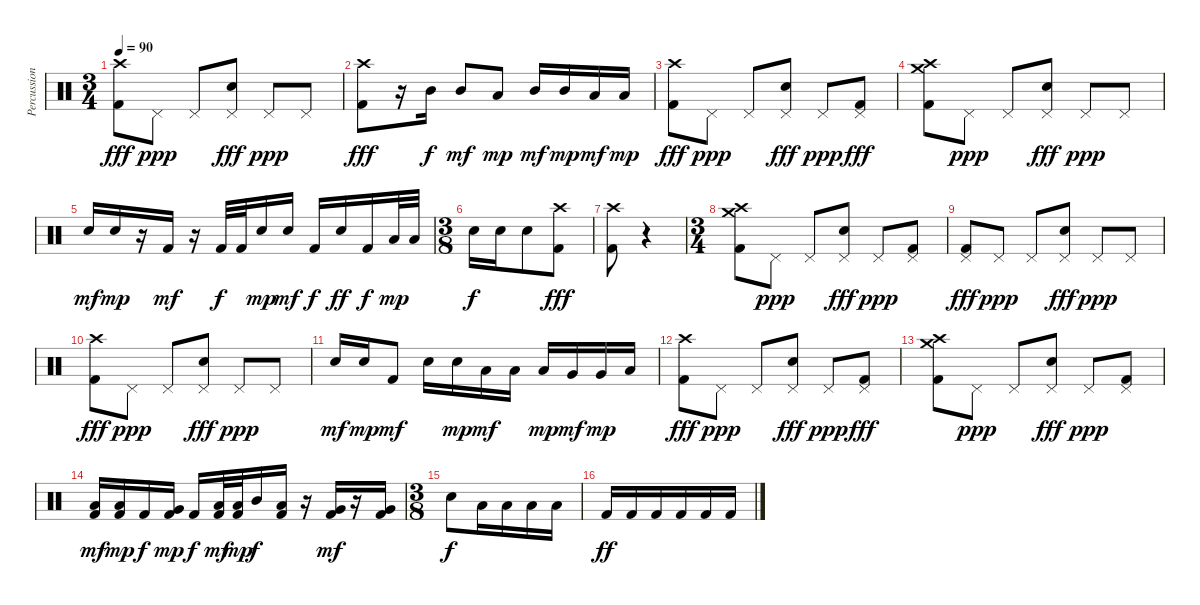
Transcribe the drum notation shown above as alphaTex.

\track ("Percussion" "Percussion") {instrument percussion}
\staff {score}
\articulation defaults
\ts (3 4)
\tempo 90
\clef neutral
\ks c
("Crash high (hit)" "Kick (hit) 2").8{dy fff} "Pedal Hi-Hat (hit)".8{dy ppp} "Pedal Hi-Hat (hit)".8 ("Pedal Hi-Hat (hit)" "Snare (hit) 2").8{dy fff} "Pedal Hi-Hat (hit)".8{dy ppp} "Pedal Hi-Hat (hit)".8 |
("Crash high (hit)" "Kick (hit) 2").8{dy fff} r.16 "Mid Tom (hit)".16{dy f} "Mid Tom (hit)".8{dy mf} "Low Tom (hit)".8{dy mp} "Mid Tom (hit)".16{dy mf} "Mid Tom (hit)".16{dy mp} "Low Tom (hit)".16{dy mf} "Low Tom (hit)".16{dy mp} |
("Crash high (hit)" "Kick (hit) 2").8{dy fff} "Pedal Hi-Hat (hit)".8{dy ppp} "Pedal Hi-Hat (hit)".8 ("Pedal Hi-Hat (hit)" "Snare (hit) 2").8{dy fff} "Pedal Hi-Hat (hit)".8{dy ppp} ("Pedal Hi-Hat (hit)" "Kick (hit) 2").8{dy fff} |
("Crash medium (hit)" "Crash high (hit)" "Kick (hit) 2").8 "Pedal Hi-Hat (hit)".8{dy ppp} "Pedal Hi-Hat (hit)".8 ("Pedal Hi-Hat (hit)" "Snare (hit) 2").8{dy fff} "Pedal Hi-Hat (hit)".8{dy ppp} "Pedal Hi-Hat (hit)".8 |
"Snare (hit) 2".16{dy mf} "Snare (hit) 2".16{dy mp} r.16 "Kick (hit) 2".16{dy mf} r.16 "Kick (hit) 2".32{dy f} "Kick (hit) 2".32 "Snare (hit) 2".16{dy mp} "Snare (hit) 2".16{dy mf} "Kick (hit) 2".16{dy f} "Snare (hit) 2".16{dy ff} "Kick (hit) 2".16{dy f} "Low Tom (hit)".32{dy mp} "Low Tom (hit)".32 |
\ts (3 8)
"Snare (hit) 2".16{dy f} "Snare (hit) 2".16 "Snare (hit) 2".8 ("Crash high (hit)" "Kick (hit) 2").8{dy fff} |
("Crash high (hit)" "Kick (hit) 2").8 r.4 |
\ts (3 4)
("Crash medium (hit)" "Crash high (hit)" "Kick (hit) 2").8 "Pedal Hi-Hat (hit)".8{dy ppp} "Pedal Hi-Hat (hit)".8 ("Pedal Hi-Hat (hit)" "Snare (hit) 2").8{dy fff} "Pedal Hi-Hat (hit)".8{dy ppp} ("Pedal Hi-Hat (hit)" "Kick (hit) 2").8 |
("Pedal Hi-Hat (hit)" "Kick (hit) 2").8{dy fff} "Pedal Hi-Hat (hit)".8{dy ppp} "Pedal Hi-Hat (hit)".8 ("Pedal Hi-Hat (hit)" "Snare (hit) 2").8{dy fff} "Pedal Hi-Hat (hit)".8{dy ppp} "Pedal Hi-Hat (hit)".8 |
("Crash high (hit)" "Kick (hit) 2").8{dy fff} "Pedal Hi-Hat (hit)".8{dy ppp} "Pedal Hi-Hat (hit)".8 ("Pedal Hi-Hat (hit)" "Snare (hit) 2").8{dy fff} "Pedal Hi-Hat (hit)".8{dy ppp} "Pedal Hi-Hat (hit)".8 |
"Snare (hit) 2".16{dy mf} "Snare (hit) 2".16{dy mp} "Kick (hit) 2".8{dy mf} "Snare (hit) 2".16 "Snare (hit) 2".16{dy mp} "Low Tom (hit)".16{dy mf} "Low Tom (hit)".16 "Low Tom (hit)".16{dy mp} "Very Low Tom (hit)".16{dy mf} "Very Low Tom (hit)".16{dy mp} "Low Floor Tom (hit)".16 |
("Crash high (hit)" "Kick (hit) 2").8{dy fff} "Pedal Hi-Hat (hit)".8{dy ppp} "Pedal Hi-Hat (hit)".8 ("Pedal Hi-Hat (hit)" "Snare (hit) 2").8{dy fff} "Pedal Hi-Hat (hit)".8{dy ppp} ("Pedal Hi-Hat (hit)" "Kick (hit) 2").8{dy fff} |
("Crash medium (hit)" "Crash high (hit)" "Kick (hit) 2").8 "Pedal Hi-Hat (hit)".8{dy ppp} "Pedal Hi-Hat (hit)".8 ("Pedal Hi-Hat (hit)" "Snare (hit) 2").8{dy fff} "Pedal Hi-Hat (hit)".8{dy ppp} ("Pedal Hi-Hat (hit)" "Kick (hit) 2").8 |
("Low Tom (hit)" "Kick (hit) 2").16{dy mf} ("Low Tom (hit)" "Kick (hit) 2").16{dy mp} "Kick (hit) 2".16{dy f} ("Very Low Tom (hit)" "Kick (hit) 2").16{dy mp} "Kick (hit) 2".16{dy f} ("Low Tom (hit)" "Kick (hit) 2").32{dy mf} ("Low Tom (hit)" "Kick (hit) 2").32{dy mp} "Mid Tom (hit)".16{dy f} ("Low Tom (hit)" "Kick (hit) 2").16 r.16 ("Very Low Tom (hit)" "Kick (hit) 2").16{dy mf} r.16 ("Very Low Tom (hit)" "Kick (hit) 2").16 |
\ts (3 8)
"Snare (hit) 2".8{dy f} "Low Tom (hit)".16 "Low Tom (hit)".16 "Low Tom (hit)".16 "Low Tom (hit)".16 |
"Kick (hit) 2".16{dy ff} "Kick (hit) 2".16 "Kick (hit) 2".16 "Kick (hit) 2".16 "Kick (hit) 2".16 "Kick (hit) 2".16
